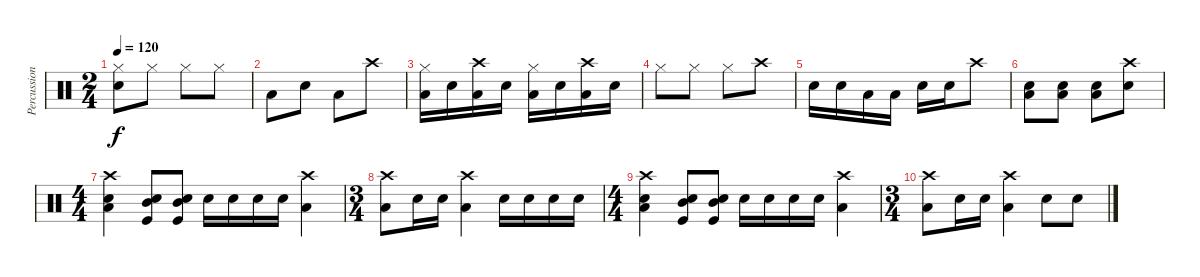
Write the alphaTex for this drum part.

\track ("Percussions" "Percussion") {instrument percussion}
\staff {score}
\articulation defaults
\ts (2 4)
\tempo 120
\clef neutral
\ks c
("Snare (hit) 2" "Hi-Hat (closed)").8{dy f} "Hi-Hat (closed)".8 "Hi-Hat (closed)".8 "Hi-Hat (closed)".8 |
"Low Tom (hit)".8 "Snare (hit) 2".8 "Low Tom (hit)".8 "Crash high (hit)".8 |
("Hi-Hat (closed)" "Low Tom (hit)").16 "Snare (hit) 2".16 ("Crash high (hit)" "Low Tom (hit)").16 "Snare (hit) 2".16 ("Hi-Hat (closed)" "Low Tom (hit)").16 "Snare (hit) 2".16 ("Crash high (hit)" "Low Tom (hit)").16 "Snare (hit) 2".16 |
"Hi-Hat (closed)".8 "Hi-Hat (closed)".8 "Hi-Hat (closed)".8 "Crash high (hit)".8 |
"Snare (hit) 2".16 "Snare (hit) 2".16 "Low Tom (hit)".16 "Low Tom (hit)".16 "Snare (hit) 2".16 "Snare (hit) 2".16 "Crash high (hit)".8 |
("Low Tom (hit)" "Snare (hit) 2").8 ("Low Tom (hit)" "Snare (hit) 2").8 ("Low Tom (hit)" "Snare (hit) 2").8 ("Crash high (hit)" "Snare (hit) 2").8 |
\ts (4 4)
("Low Tom (hit)" "Crash high (hit)" "Snare (hit) 2").4 ("Mid Tom (hit)" "Electric Snare (hit)" "Kick (hit)").8 ("Mid Tom (hit)" "Electric Snare (hit)" "Kick (hit)").8 "Snare (hit) 2".16 "Snare (hit) 2".16 "Snare (hit) 2".16 "Snare (hit) 2".16 ("Low Tom (hit)" "Crash high (hit)").4 |
\ts (3 4)
("Crash high (hit)" "Low Tom (hit)").8 "Snare (hit) 2".16 "Snare (hit) 2".16 ("Low Tom (hit)" "Crash high (hit)").4 "Snare (hit) 2".16 "Snare (hit) 2".16 "Snare (hit) 2".16 "Snare (hit) 2".16 |
\ts (4 4)
("Low Tom (hit)" "Crash high (hit)" "Snare (hit) 2").4 ("Mid Tom (hit)" "Electric Snare (hit)" "Kick (hit)").8 ("Mid Tom (hit)" "Electric Snare (hit)" "Kick (hit)").8 "Snare (hit) 2".16 "Snare (hit) 2".16 "Snare (hit) 2".16 "Snare (hit) 2".16 ("Low Tom (hit)" "Crash high (hit)").4 |
\ts (3 4)
("Crash high (hit)" "Low Tom (hit)").8 "Snare (hit) 2".16 "Snare (hit) 2".16 ("Low Tom (hit)" "Crash high (hit)").4 "Snare (hit) 2".8 "Snare (hit) 2".8
